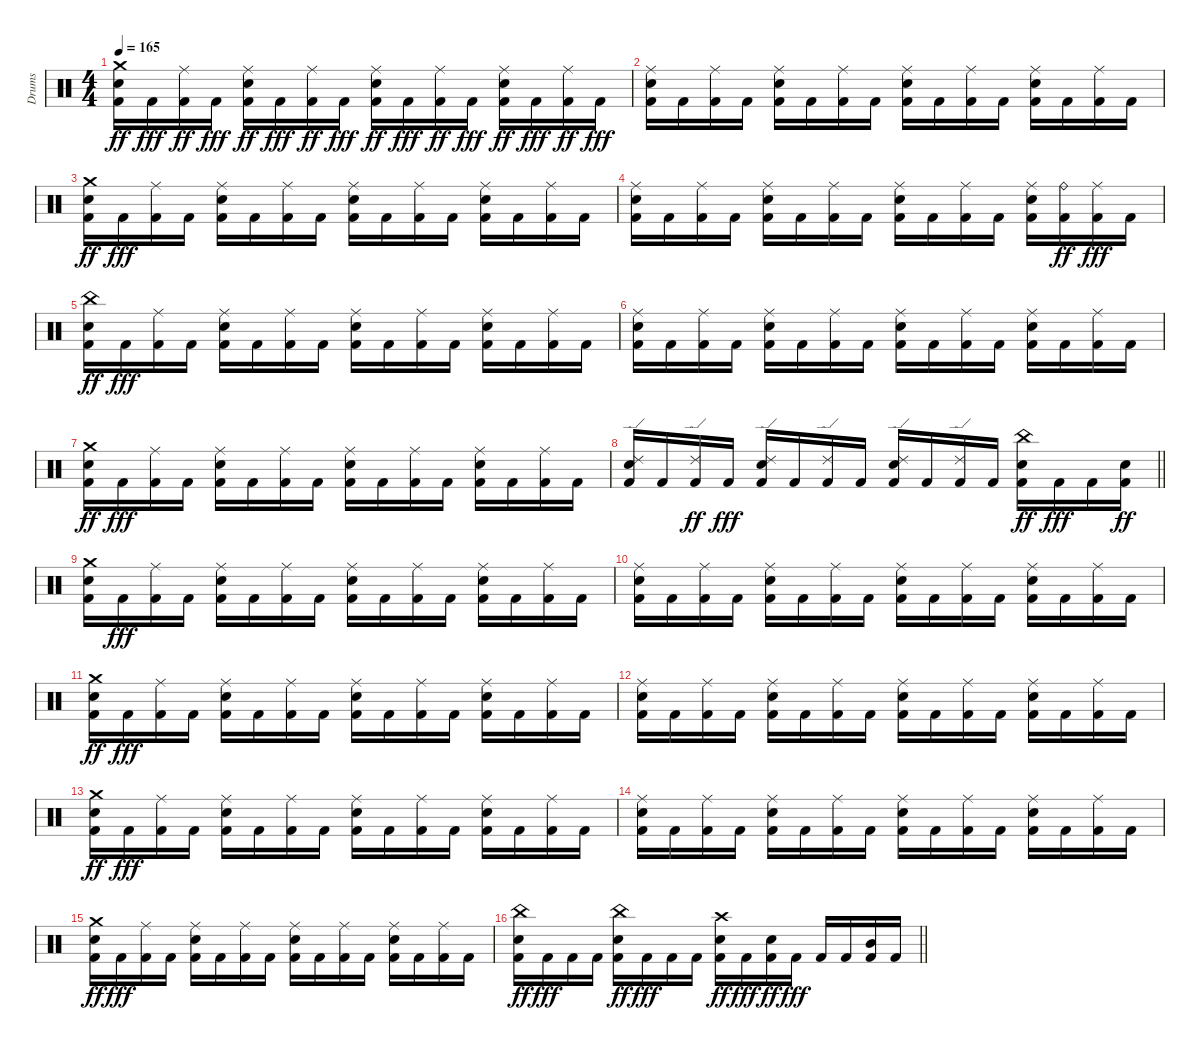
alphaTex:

\track ("Drums" "Drums") {instrument percussion}
\staff {score}
\articulation defaults
\ts (4 4)
\tempo 165
\clef neutral
\ks c
("Kick (hit) 2" "Snare (hit) 2" "Crash medium (hit)").16{dy ff} "Kick (hit) 2".16{dy fff} ("Kick (hit) 2" "Ride (middle)").16{dy ff} "Kick (hit) 2".16{dy fff} ("Kick (hit) 2" "Snare (hit) 2" "Ride (middle)").16{dy ff} "Kick (hit) 2".16{dy fff} ("Kick (hit) 2" "Ride (middle)").16{dy ff} "Kick (hit) 2".16{dy fff} ("Kick (hit) 2" "Snare (hit) 2" "Ride (middle)").16{dy ff} "Kick (hit) 2".16{dy fff} ("Kick (hit) 2" "Ride (middle)").16{dy ff} "Kick (hit) 2".16{dy fff} ("Kick (hit) 2" "Snare (hit) 2" "Ride (middle)").16{dy ff} "Kick (hit) 2".16{dy fff} ("Kick (hit) 2" "Ride (middle)").16{dy ff} "Kick (hit) 2".16{dy fff} |
("Kick (hit) 2" "Snare (hit) 2" "Ride (middle)").16 "Kick (hit) 2".16 ("Kick (hit) 2" "Ride (middle)").16 "Kick (hit) 2".16 ("Kick (hit) 2" "Snare (hit) 2" "Ride (middle)").16 "Kick (hit) 2".16 ("Kick (hit) 2" "Ride (middle)").16 "Kick (hit) 2".16 ("Kick (hit) 2" "Snare (hit) 2" "Ride (middle)").16 "Kick (hit) 2".16 ("Kick (hit) 2" "Ride (middle)").16 "Kick (hit) 2".16 ("Kick (hit) 2" "Snare (hit) 2" "Ride (middle)").16 "Kick (hit) 2".16 ("Kick (hit) 2" "Ride (middle)").16 "Kick (hit) 2".16 |
("Kick (hit) 2" "Snare (hit) 2" "Crash medium (hit)").16{dy ff} "Kick (hit) 2".16{dy fff} ("Kick (hit) 2" "Ride (middle)").16 "Kick (hit) 2".16 ("Kick (hit) 2" "Snare (hit) 2" "Ride (middle)").16 "Kick (hit) 2".16 ("Kick (hit) 2" "Ride (middle)").16 "Kick (hit) 2".16 ("Kick (hit) 2" "Snare (hit) 2" "Ride (middle)").16 "Kick (hit) 2".16 ("Kick (hit) 2" "Ride (middle)").16 "Kick (hit) 2".16 ("Kick (hit) 2" "Snare (hit) 2" "Ride (middle)").16 "Kick (hit) 2".16 ("Kick (hit) 2" "Ride (middle)").16 "Kick (hit) 2".16 |
("Kick (hit) 2" "Snare (hit) 2" "Ride (middle)").16 "Kick (hit) 2".16 ("Kick (hit) 2" "Ride (middle)").16 "Kick (hit) 2".16 ("Kick (hit) 2" "Snare (hit) 2" "Ride (middle)").16 "Kick (hit) 2".16 ("Kick (hit) 2" "Ride (middle)").16 "Kick (hit) 2".16 ("Kick (hit) 2" "Snare (hit) 2" "Ride (middle)").16 "Kick (hit) 2".16 ("Kick (hit) 2" "Ride (middle)").16 "Kick (hit) 2".16 ("Kick (hit) 2" "Snare (hit) 2" "Ride (middle)").16 ("Kick (hit) 2" "Ride (bell)").16{dy ff} ("Kick (hit) 2" "Ride (middle)").16{dy fff} "Kick (hit) 2".16 |
("Kick (hit) 2" "Snare (hit) 2" "China (hit)").16{dy ff} "Kick (hit) 2".16{dy fff} ("Kick (hit) 2" "Ride (middle)").16 "Kick (hit) 2".16 ("Kick (hit) 2" "Snare (hit) 2" "Ride (middle)").16 "Kick (hit) 2".16 ("Kick (hit) 2" "Ride (middle)").16 "Kick (hit) 2".16 ("Kick (hit) 2" "Snare (hit) 2" "Ride (middle)").16 "Kick (hit) 2".16 ("Kick (hit) 2" "Ride (middle)").16 "Kick (hit) 2".16 ("Kick (hit) 2" "Snare (hit) 2" "Ride (middle)").16 "Kick (hit) 2".16 ("Kick (hit) 2" "Ride (middle)").16 "Kick (hit) 2".16 |
("Kick (hit) 2" "Snare (hit) 2" "Ride (middle)").16 "Kick (hit) 2".16 ("Kick (hit) 2" "Ride (middle)").16 "Kick (hit) 2".16 ("Kick (hit) 2" "Snare (hit) 2" "Ride (middle)").16 "Kick (hit) 2".16 ("Kick (hit) 2" "Ride (middle)").16 "Kick (hit) 2".16 ("Kick (hit) 2" "Snare (hit) 2" "Ride (middle)").16 "Kick (hit) 2".16 ("Kick (hit) 2" "Ride (middle)").16 "Kick (hit) 2".16 ("Kick (hit) 2" "Snare (hit) 2" "Ride (middle)").16 "Kick (hit) 2".16 ("Kick (hit) 2" "Ride (middle)").16 "Kick (hit) 2".16 |
("Kick (hit) 2" "Snare (hit) 2" "Crash medium (hit)").16{dy ff} "Kick (hit) 2".16{dy fff} ("Kick (hit) 2" "Ride (middle)").16 "Kick (hit) 2".16 ("Kick (hit) 2" "Snare (hit) 2" "Ride (middle)").16 "Kick (hit) 2".16 ("Kick (hit) 2" "Ride (middle)").16 "Kick (hit) 2".16 ("Kick (hit) 2" "Snare (hit) 2" "Ride (middle)").16 "Kick (hit) 2".16 ("Kick (hit) 2" "Ride (middle)").16 "Kick (hit) 2".16 ("Kick (hit) 2" "Snare (hit) 2" "Ride (middle)").16 "Kick (hit) 2".16 ("Kick (hit) 2" "Ride (middle)").16 "Kick (hit) 2".16 |
\barLineRight lightlight
("Kick (hit) 2" "Snare (hit) 2" "Ride (edge) 2").16 "Kick (hit) 2".16 ("Kick (hit) 2" "Ride (edge) 2").16{dy ff} "Kick (hit) 2".16{dy fff} ("Kick (hit) 2" "Snare (hit) 2" "Ride (edge) 2").16 "Kick (hit) 2".16 ("Kick (hit) 2" "Ride (edge) 2").16 "Kick (hit) 2".16 ("Kick (hit) 2" "Snare (hit) 2" "Ride (edge) 2").16 "Kick (hit) 2".16 ("Kick (hit) 2" "Ride (edge) 2").16 "Kick (hit) 2".16 ("Kick (hit) 2" "Snare (hit) 2" "China (hit)").16{dy ff} "Kick (hit) 2".16{dy fff} "Kick (hit) 2".16 ("Kick (hit) 2" "Snare (hit) 2").16{dy ff} |
("Kick (hit) 2" "Snare (hit) 2" "Crash medium (hit)").16 "Kick (hit) 2".16{dy fff} ("Kick (hit) 2" "Ride (middle)").16 "Kick (hit) 2".16 ("Kick (hit) 2" "Snare (hit) 2" "Ride (middle)").16 "Kick (hit) 2".16 ("Kick (hit) 2" "Ride (middle)").16 "Kick (hit) 2".16 ("Kick (hit) 2" "Snare (hit) 2" "Ride (middle)").16 "Kick (hit) 2".16 ("Kick (hit) 2" "Ride (middle)").16 "Kick (hit) 2".16 ("Kick (hit) 2" "Snare (hit) 2" "Ride (middle)").16 "Kick (hit) 2".16 ("Kick (hit) 2" "Ride (middle)").16 "Kick (hit) 2".16 |
("Kick (hit) 2" "Snare (hit) 2" "Ride (middle)").16 "Kick (hit) 2".16 ("Kick (hit) 2" "Ride (middle)").16 "Kick (hit) 2".16 ("Kick (hit) 2" "Snare (hit) 2" "Ride (middle)").16 "Kick (hit) 2".16 ("Kick (hit) 2" "Ride (middle)").16 "Kick (hit) 2".16 ("Kick (hit) 2" "Snare (hit) 2" "Ride (middle)").16 "Kick (hit) 2".16 ("Kick (hit) 2" "Ride (middle)").16 "Kick (hit) 2".16 ("Kick (hit) 2" "Snare (hit) 2" "Ride (middle)").16 "Kick (hit) 2".16 ("Kick (hit) 2" "Ride (middle)").16 "Kick (hit) 2".16 |
("Kick (hit) 2" "Snare (hit) 2" "Crash medium (hit)").16{dy ff} "Kick (hit) 2".16{dy fff} ("Kick (hit) 2" "Ride (middle)").16 "Kick (hit) 2".16 ("Kick (hit) 2" "Snare (hit) 2" "Ride (middle)").16 "Kick (hit) 2".16 ("Kick (hit) 2" "Ride (middle)").16 "Kick (hit) 2".16 ("Kick (hit) 2" "Snare (hit) 2" "Ride (middle)").16 "Kick (hit) 2".16 ("Kick (hit) 2" "Ride (middle)").16 "Kick (hit) 2".16 ("Kick (hit) 2" "Snare (hit) 2" "Ride (middle)").16 "Kick (hit) 2".16 ("Kick (hit) 2" "Ride (middle)").16 "Kick (hit) 2".16 |
("Kick (hit) 2" "Snare (hit) 2" "Ride (middle)").16 "Kick (hit) 2".16 ("Kick (hit) 2" "Ride (middle)").16 "Kick (hit) 2".16 ("Kick (hit) 2" "Snare (hit) 2" "Ride (middle)").16 "Kick (hit) 2".16 ("Kick (hit) 2" "Ride (middle)").16 "Kick (hit) 2".16 ("Kick (hit) 2" "Snare (hit) 2" "Ride (middle)").16 "Kick (hit) 2".16 ("Kick (hit) 2" "Ride (middle)").16 "Kick (hit) 2".16 ("Kick (hit) 2" "Snare (hit) 2" "Ride (middle)").16 "Kick (hit) 2".16 ("Kick (hit) 2" "Ride (middle)").16 "Kick (hit) 2".16 |
("Kick (hit) 2" "Snare (hit) 2" "Crash medium (hit)").16{dy ff} "Kick (hit) 2".16{dy fff} ("Kick (hit) 2" "Ride (middle)").16 "Kick (hit) 2".16 ("Kick (hit) 2" "Snare (hit) 2" "Ride (middle)").16 "Kick (hit) 2".16 ("Kick (hit) 2" "Ride (middle)").16 "Kick (hit) 2".16 ("Kick (hit) 2" "Snare (hit) 2" "Ride (middle)").16 "Kick (hit) 2".16 ("Kick (hit) 2" "Ride (middle)").16 "Kick (hit) 2".16 ("Kick (hit) 2" "Snare (hit) 2" "Ride (middle)").16 "Kick (hit) 2".16 ("Kick (hit) 2" "Ride (middle)").16 "Kick (hit) 2".16 |
("Kick (hit) 2" "Snare (hit) 2" "Ride (middle)").16 "Kick (hit) 2".16 ("Kick (hit) 2" "Ride (middle)").16 "Kick (hit) 2".16 ("Kick (hit) 2" "Snare (hit) 2" "Ride (middle)").16 "Kick (hit) 2".16 ("Kick (hit) 2" "Ride (middle)").16 "Kick (hit) 2".16 ("Kick (hit) 2" "Snare (hit) 2" "Ride (middle)").16 "Kick (hit) 2".16 ("Kick (hit) 2" "Ride (middle)").16 "Kick (hit) 2".16 ("Kick (hit) 2" "Snare (hit) 2" "Ride (middle)").16 "Kick (hit) 2".16 ("Kick (hit) 2" "Ride (middle)").16 "Kick (hit) 2".16 |
("Kick (hit) 2" "Snare (hit) 2" "Crash medium (hit)").16{dy ff} "Kick (hit) 2".16{dy fff} ("Kick (hit) 2" "Ride (middle)").16 "Kick (hit) 2".16 ("Kick (hit) 2" "Snare (hit) 2" "Ride (middle)").16 "Kick (hit) 2".16 ("Kick (hit) 2" "Ride (middle)").16 "Kick (hit) 2".16 ("Kick (hit) 2" "Snare (hit) 2" "Ride (middle)").16 "Kick (hit) 2".16 ("Kick (hit) 2" "Ride (middle)").16 "Kick (hit) 2".16 ("Kick (hit) 2" "Snare (hit) 2" "Ride (middle)").16 "Kick (hit) 2".16 ("Kick (hit) 2" "Ride (middle)").16 "Kick (hit) 2".16 |
\barLineRight lightlight
("Kick (hit) 2" "Snare (hit) 2" "China (hit)").16{dy ff} "Kick (hit) 2".16{dy fff} "Kick (hit) 2".16 "Kick (hit) 2".16 ("Kick (hit) 2" "Snare (hit) 2" "China (hit)").16{dy ff} "Kick (hit) 2".16{dy fff} "Kick (hit) 2".16 "Kick (hit) 2".16 ("Kick (hit) 2" "Snare (hit) 2" "Crash high (hit)").16{dy ff} "Kick (hit) 2".16{dy fff} ("Kick (hit) 2" "Snare (hit) 2").16{dy ff} "Kick (hit) 2".16{dy fff} "Kick (hit) 2".16 "Kick (hit) 2".16 ("Kick (hit) 2" "Mid Tom (hit)").16 "Kick (hit) 2".16
